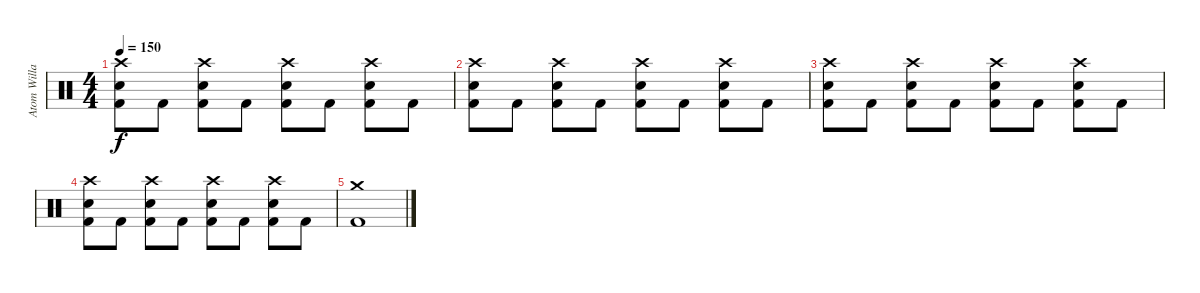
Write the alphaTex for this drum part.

\track ("Atom Willard - Drums" "Atom Willa") {instrument percussion}
\staff {score}
\articulation defaults
\ts (4 4)
\tempo 150
\clef neutral
\ks c
("Crash high (hit)" "Electric Snare (hit)" "Kick (hit) 2").8{dy f} "Kick (hit) 2".8 ("Crash high (hit)" "Electric Snare (hit)" "Kick (hit) 2").8 "Kick (hit) 2".8 ("Crash high (hit)" "Electric Snare (hit)" "Kick (hit) 2").8 "Kick (hit) 2".8 ("Crash high (hit)" "Electric Snare (hit)" "Kick (hit) 2").8 "Kick (hit) 2".8 |
("Crash high (hit)" "Electric Snare (hit)" "Kick (hit) 2").8 "Kick (hit) 2".8 ("Crash high (hit)" "Electric Snare (hit)" "Kick (hit) 2").8 "Kick (hit) 2".8 ("Crash high (hit)" "Electric Snare (hit)" "Kick (hit) 2").8 "Kick (hit) 2".8 ("Crash high (hit)" "Electric Snare (hit)" "Kick (hit) 2").8 "Kick (hit) 2".8 |
("Crash high (hit)" "Electric Snare (hit)" "Kick (hit) 2").8 "Kick (hit) 2".8 ("Crash high (hit)" "Electric Snare (hit)" "Kick (hit) 2").8 "Kick (hit) 2".8 ("Crash high (hit)" "Electric Snare (hit)" "Kick (hit) 2").8 "Kick (hit) 2".8 ("Crash high (hit)" "Electric Snare (hit)" "Kick (hit) 2").8 "Kick (hit) 2".8 |
("Crash high (hit)" "Electric Snare (hit)" "Kick (hit) 2").8 "Kick (hit) 2".8 ("Crash high (hit)" "Electric Snare (hit)" "Kick (hit) 2").8 "Kick (hit) 2".8 ("Crash high (hit)" "Electric Snare (hit)" "Kick (hit) 2").8 "Kick (hit) 2".8 ("Crash high (hit)" "Electric Snare (hit)" "Kick (hit) 2").8 "Kick (hit) 2".8 |
("Crash medium (hit)" "Kick (hit) 2").1
